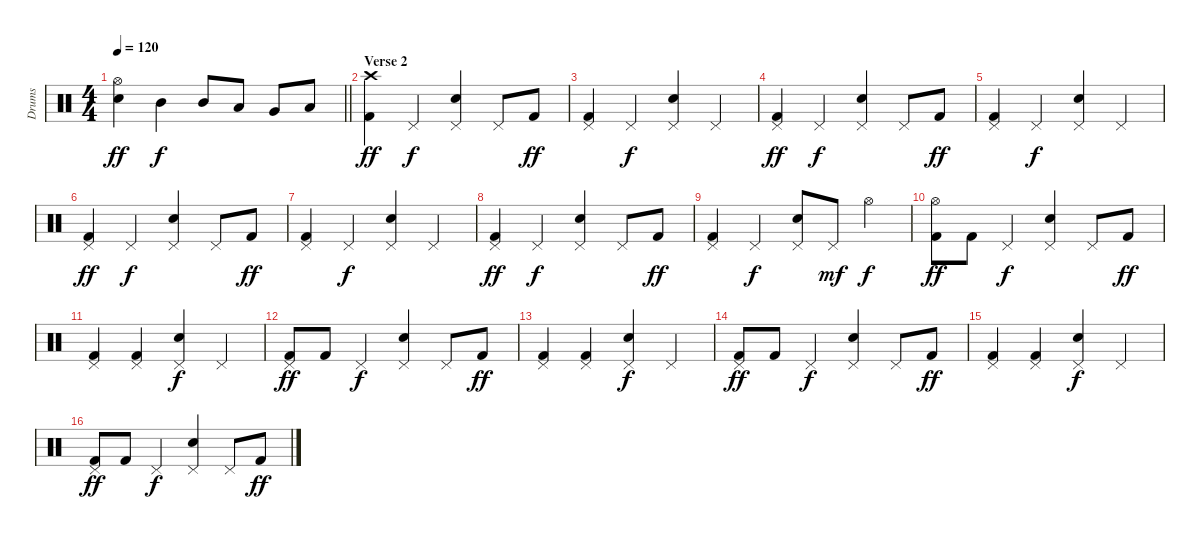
\track ("Drums" "Drums") {instrument percussion}
\staff {score}
\articulation defaults
\ts (4 4)
\tempo 120
\clef neutral
\barLineRight lightlight
\ks c
("Hi-Hat (open)" "Snare (hit) 2").4{dy ff} "Mid Tom (hit)".4{dy f} "Mid Tom (hit)".8 "Low Tom (hit)".8 "Very Low Tom (hit)".8 "Low Floor Tom (hit)".8 |
\section ("" "Verse 2")
("Crash high (hit)" "Kick (hit) 2").4{dy ff} "Pedal Hi-Hat (hit)".4{dy f} ("Pedal Hi-Hat (hit)" "Snare (hit) 2").4 "Pedal Hi-Hat (hit)".8 "Kick (hit) 2".8{dy ff} |
("Pedal Hi-Hat (hit)" "Kick (hit) 2").4 "Pedal Hi-Hat (hit)".4{dy f} ("Pedal Hi-Hat (hit)" "Snare (hit) 2").4 "Pedal Hi-Hat (hit)".4 |
("Pedal Hi-Hat (hit)" "Kick (hit) 2").4{dy ff} "Pedal Hi-Hat (hit)".4{dy f} ("Pedal Hi-Hat (hit)" "Snare (hit) 2").4 "Pedal Hi-Hat (hit)".8 "Kick (hit) 2".8{dy ff} |
("Pedal Hi-Hat (hit)" "Kick (hit) 2").4 "Pedal Hi-Hat (hit)".4{dy f} ("Pedal Hi-Hat (hit)" "Snare (hit) 2").4 "Pedal Hi-Hat (hit)".4 |
("Pedal Hi-Hat (hit)" "Kick (hit) 2").4{dy ff} "Pedal Hi-Hat (hit)".4{dy f} ("Pedal Hi-Hat (hit)" "Snare (hit) 2").4 "Pedal Hi-Hat (hit)".8 "Kick (hit) 2".8{dy ff} |
("Pedal Hi-Hat (hit)" "Kick (hit) 2").4 "Pedal Hi-Hat (hit)".4{dy f} ("Pedal Hi-Hat (hit)" "Snare (hit) 2").4 "Pedal Hi-Hat (hit)".4 |
("Pedal Hi-Hat (hit)" "Kick (hit) 2").4{dy ff} "Pedal Hi-Hat (hit)".4{dy f} ("Pedal Hi-Hat (hit)" "Snare (hit) 2").4 "Pedal Hi-Hat (hit)".8 "Kick (hit) 2".8{dy ff} |
("Pedal Hi-Hat (hit)" "Kick (hit) 2").4 "Pedal Hi-Hat (hit)".4{dy f} ("Pedal Hi-Hat (hit)" "Snare (hit) 2").8 "Pedal Hi-Hat (hit)".8{dy mf} "Hi-Hat (open)".4{dy f} |
("Hi-Hat (open)" "Kick (hit) 2").8{dy ff} "Kick (hit) 2".8 "Pedal Hi-Hat (hit)".4{dy f} ("Pedal Hi-Hat (hit)" "Snare (hit) 2").4 "Pedal Hi-Hat (hit)".8 "Kick (hit) 2".8{dy ff} |
("Pedal Hi-Hat (hit)" "Kick (hit) 2").4 ("Pedal Hi-Hat (hit)" "Kick (hit) 2").4 ("Pedal Hi-Hat (hit)" "Snare (hit) 2").4{dy f} "Pedal Hi-Hat (hit)".4 |
("Pedal Hi-Hat (hit)" "Kick (hit) 2").8{dy ff} "Kick (hit) 2".8 "Pedal Hi-Hat (hit)".4{dy f} ("Pedal Hi-Hat (hit)" "Snare (hit) 2").4 "Pedal Hi-Hat (hit)".8 "Kick (hit) 2".8{dy ff} |
("Pedal Hi-Hat (hit)" "Kick (hit) 2").4 ("Pedal Hi-Hat (hit)" "Kick (hit) 2").4 ("Pedal Hi-Hat (hit)" "Snare (hit) 2").4{dy f} "Pedal Hi-Hat (hit)".4 |
("Pedal Hi-Hat (hit)" "Kick (hit) 2").8{dy ff} "Kick (hit) 2".8 "Pedal Hi-Hat (hit)".4{dy f} ("Pedal Hi-Hat (hit)" "Snare (hit) 2").4 "Pedal Hi-Hat (hit)".8 "Kick (hit) 2".8{dy ff} |
("Pedal Hi-Hat (hit)" "Kick (hit) 2").4 ("Pedal Hi-Hat (hit)" "Kick (hit) 2").4 ("Pedal Hi-Hat (hit)" "Snare (hit) 2").4{dy f} "Pedal Hi-Hat (hit)".4 |
("Pedal Hi-Hat (hit)" "Kick (hit) 2").8{dy ff} "Kick (hit) 2".8 "Pedal Hi-Hat (hit)".4{dy f} ("Pedal Hi-Hat (hit)" "Snare (hit) 2").4 "Pedal Hi-Hat (hit)".8 "Kick (hit) 2".8{dy ff}
